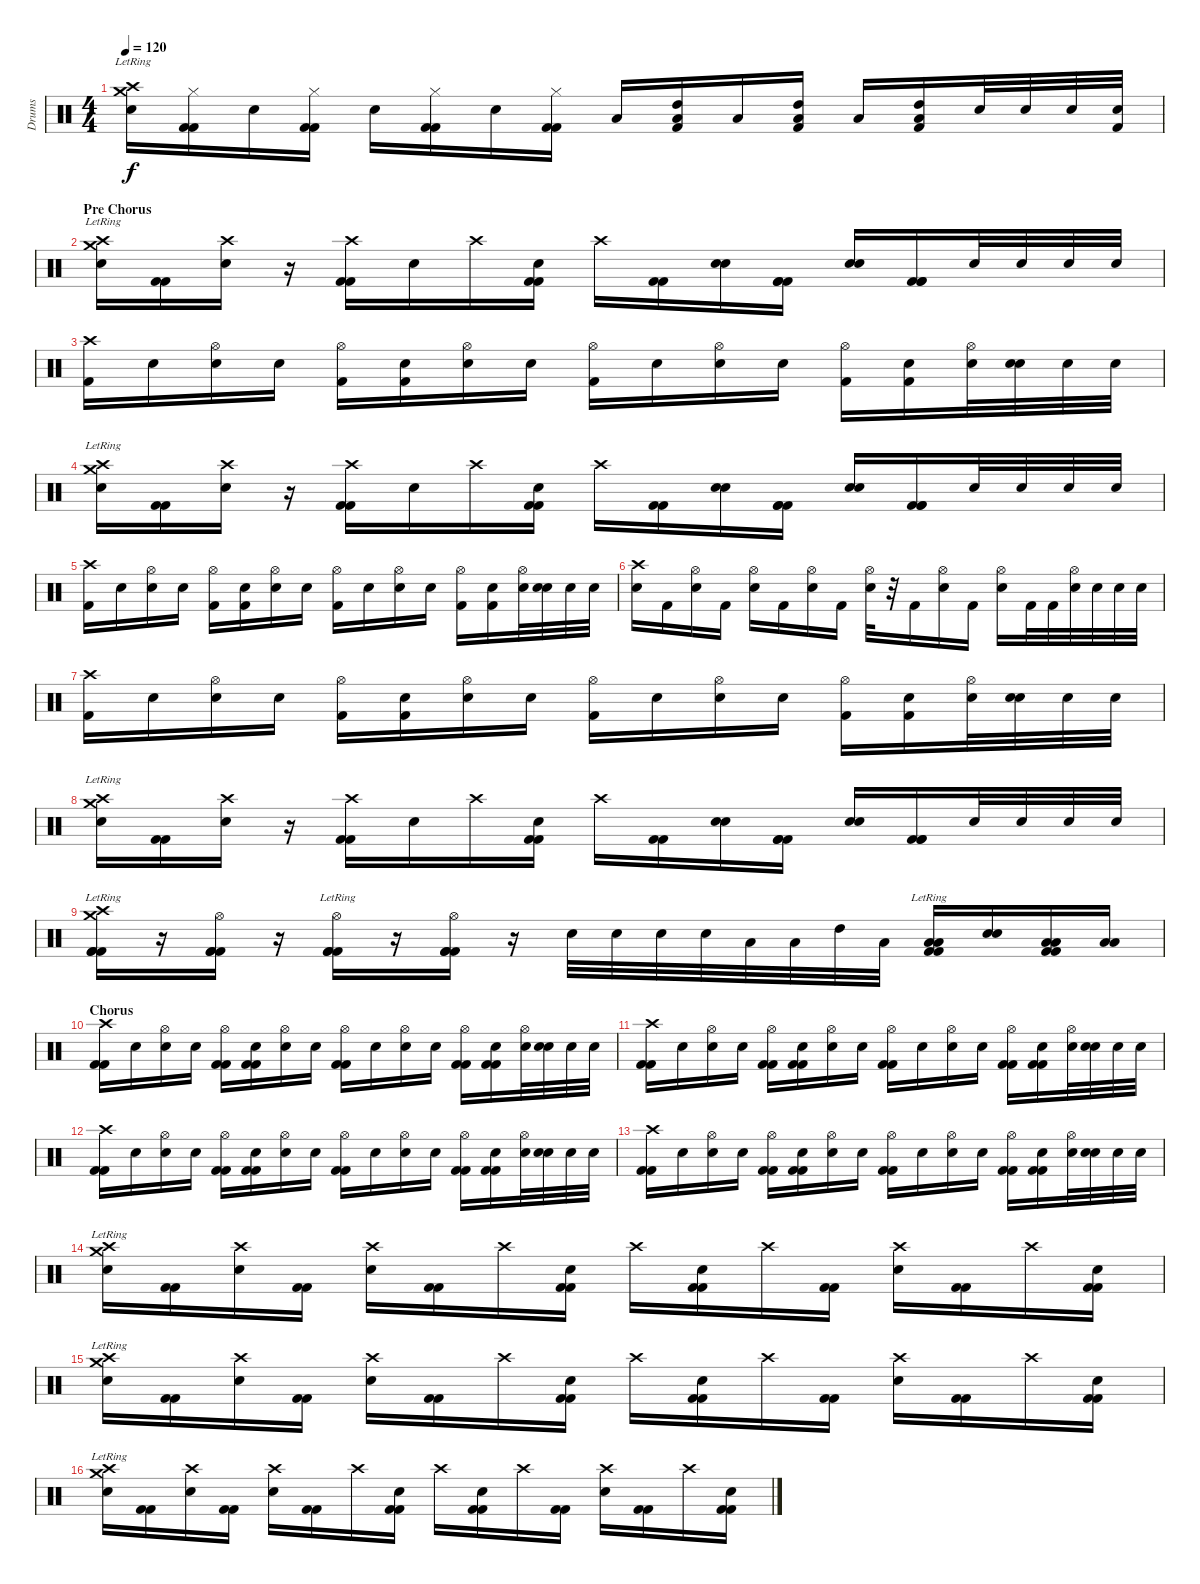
\track ("Drums" "Drums") {instrument percussion}
\staff {score}
\articulation defaults
\ts (4 4)
\tempo 120
\clef neutral
\ks c
("Crash medium (hit)"{lr} "Crash high (hit)"{lr} "Electric Snare (hit)").16{dy f} ("Hi-Hat (closed)" "Kick (hit) 2" "Kick (hit) 2").16 "Electric Snare (hit)".16 ("Hi-Hat (closed)" "Kick (hit) 2" "Kick (hit) 2").16 "Electric Snare (hit)".16 ("Hi-Hat (closed)" "Kick (hit) 2" "Kick (hit) 2").16 "Electric Snare (hit)".16 ("Hi-Hat (closed)" "Kick (hit) 2" "Kick (hit) 2").16 "Low Tom (hit)".16 ("Low Tom (hit)" "High Tom (hit)" "Kick (hit) 2").16 "Low Floor Tom (hit)".16 ("Low Floor Tom (hit)" "High Tom (hit)" "Kick (hit) 2").16 "Low Tom (hit)".16 ("Low Floor Tom (hit)" "High Tom (hit)" "Kick (hit) 2").16 "Electric Snare (hit)".32 "Electric Snare (hit)".32 "Electric Snare (hit)".32 ("Kick (hit) 2" "Electric Snare (hit)").32 |
\section ("" "Pre Chorus")
("Crash medium (hit)"{lr} "Crash high (hit)"{lr} "Electric Snare (hit)").16 ("Kick (hit) 2" "Kick (hit) 2").16 ("Crash high (hit)" "Electric Snare (hit)").16 r.16 ("Crash high (hit)" "Kick (hit) 2" "Kick (hit) 2").16 "Electric Snare (hit)".16 "Crash high (hit)".16 ("Electric Snare (hit)" "Kick (hit) 2" "Kick (hit) 2").16 "Crash high (hit)".16 ("Kick (hit) 2" "Kick (hit) 2").16 ("Electric Snare (hit)" "Electric Snare (hit)").16 ("Kick (hit) 2" "Kick (hit) 2" "Kick (hit) 2").16 ("Electric Snare (hit)" "Electric Snare (hit)").16 ("Kick (hit) 2" "Kick (hit) 2" "Kick (hit) 2").16 "Electric Snare (hit)".32 "Electric Snare (hit)".32 "Electric Snare (hit)".32 "Electric Snare (hit)".32 |
("Crash high (hit)" "Kick (hit) 2").16 "Snare (hit)".16 ("Hi-Hat (open)" "Electric Snare (hit)").16 "Snare (hit)".16 ("Hi-Hat (open)" "Kick (hit) 2").16 ("Snare (hit)" "Kick (hit) 2").16 ("Hi-Hat (open)" "Electric Snare (hit)").16 "Snare (hit)".16 ("Hi-Hat (open)" "Kick (hit) 2").16 "Snare (hit)".16 ("Hi-Hat (open)" "Electric Snare (hit)").16 "Snare (hit)".16 ("Hi-Hat (open)" "Kick (hit) 2").16 ("Snare (hit)" "Kick (hit) 2").16 ("Hi-Hat (open)" "Electric Snare (hit)").32 ("Snare (hit)" "Electric Snare (hit)").32 "Electric Snare (hit)".32 "Electric Snare (hit)".32 |
("Crash medium (hit)"{lr} "Crash high (hit)"{lr} "Electric Snare (hit)").16 ("Kick (hit) 2" "Kick (hit) 2").16 ("Crash high (hit)" "Electric Snare (hit)").16 r.16 ("Crash high (hit)" "Kick (hit) 2" "Kick (hit) 2").16 "Electric Snare (hit)".16 "Crash high (hit)".16 ("Electric Snare (hit)" "Kick (hit) 2" "Kick (hit) 2").16 "Crash high (hit)".16 ("Kick (hit) 2" "Kick (hit) 2").16 ("Electric Snare (hit)" "Electric Snare (hit)").16 ("Kick (hit) 2" "Kick (hit) 2" "Kick (hit) 2").16 ("Electric Snare (hit)" "Electric Snare (hit)").16 ("Kick (hit) 2" "Kick (hit) 2" "Kick (hit) 2").16 "Electric Snare (hit)".32 "Electric Snare (hit)".32 "Electric Snare (hit)".32 "Electric Snare (hit)".32 |
("Crash high (hit)" "Kick (hit) 2").16 "Snare (hit)".16 ("Hi-Hat (open)" "Electric Snare (hit)").16 "Snare (hit)".16 ("Hi-Hat (open)" "Kick (hit) 2").16 ("Snare (hit)" "Kick (hit) 2").16 ("Hi-Hat (open)" "Electric Snare (hit)").16 "Snare (hit)".16 ("Hi-Hat (open)" "Kick (hit) 2").16 "Snare (hit)".16 ("Hi-Hat (open)" "Electric Snare (hit)").16 "Snare (hit)".16 ("Hi-Hat (open)" "Kick (hit) 2").16 ("Snare (hit)" "Kick (hit) 2").16 ("Hi-Hat (open)" "Electric Snare (hit)").32 ("Snare (hit)" "Electric Snare (hit)").32 "Electric Snare (hit)".32 "Electric Snare (hit)".32 |
("Crash high (hit)" "Electric Snare (hit)").16 "Kick (hit) 2".16 ("Hi-Hat (open)" "Electric Snare (hit)").16 "Kick (hit) 2".16 ("Hi-Hat (open)" "Electric Snare (hit)").16 "Kick (hit) 2".16 ("Hi-Hat (open)" "Electric Snare (hit)").16 "Kick (hit) 2".16 ("Hi-Hat (open)" "Electric Snare (hit)").32 r.32 "Kick (hit) 2".16 ("Hi-Hat (open)" "Electric Snare (hit)").16 "Kick (hit) 2".16 ("Hi-Hat (open)" "Electric Snare (hit)").16 "Kick (hit) 2".32 "Kick (hit) 2".32 ("Hi-Hat (open)" "Electric Snare (hit)").32 "Electric Snare (hit)".32 "Electric Snare (hit)".32 "Electric Snare (hit)".32 |
("Crash high (hit)" "Kick (hit) 2").16 "Snare (hit)".16 ("Hi-Hat (open)" "Electric Snare (hit)").16 "Snare (hit)".16 ("Hi-Hat (open)" "Kick (hit) 2").16 ("Snare (hit)" "Kick (hit) 2").16 ("Hi-Hat (open)" "Electric Snare (hit)").16 "Snare (hit)".16 ("Hi-Hat (open)" "Kick (hit) 2").16 "Snare (hit)".16 ("Hi-Hat (open)" "Electric Snare (hit)").16 "Snare (hit)".16 ("Hi-Hat (open)" "Kick (hit) 2").16 ("Snare (hit)" "Kick (hit) 2").16 ("Hi-Hat (open)" "Electric Snare (hit)").32 ("Snare (hit)" "Electric Snare (hit)").32 "Electric Snare (hit)".32 "Electric Snare (hit)".32 |
("Crash medium (hit)"{lr} "Crash high (hit)"{lr} "Electric Snare (hit)").16 ("Kick (hit) 2" "Kick (hit) 2").16 ("Crash high (hit)" "Electric Snare (hit)").16 r.16 ("Crash high (hit)" "Kick (hit) 2" "Kick (hit) 2").16 "Electric Snare (hit)".16 "Crash high (hit)".16 ("Electric Snare (hit)" "Kick (hit) 2" "Kick (hit) 2").16 "Crash high (hit)".16 ("Kick (hit) 2" "Kick (hit) 2").16 ("Electric Snare (hit)" "Electric Snare (hit)").16 ("Kick (hit) 2" "Kick (hit) 2" "Kick (hit) 2").16 ("Electric Snare (hit)" "Electric Snare (hit)").16 ("Kick (hit) 2" "Kick (hit) 2" "Kick (hit) 2").16 "Electric Snare (hit)".32 "Electric Snare (hit)".32 "Electric Snare (hit)".32 "Electric Snare (hit)".32 |
("Crash high (hit)"{lr} "Crash medium (hit)"{lr} "Kick (hit) 2" "Kick (hit) 2" "Kick (hit) 2").16 r.16 ("Hi-Hat (open)" "Kick (hit) 2" "Kick (hit) 2" "Kick (hit) 2").16 r.16 ("Hi-Hat (open)"{lr} "Kick (hit) 2" "Kick (hit) 2" "Kick (hit) 2").16 r.16 ("Hi-Hat (open)" "Kick (hit) 2" "Kick (hit) 2" "Kick (hit) 2").16 r.16 "Electric Snare (hit)".32 "Electric Snare (hit)".32 "Electric Snare (hit)".32 "Electric Snare (hit)".32 "Low Floor Tom (hit)".32 "Low Tom (hit)".32 "High Tom (hit)".32 "Low Tom (hit)".32 ("Low Floor Tom (hit)" "Low Floor Tom (hit)"{lr} "Kick (hit) 2" "Kick (hit) 2").16 ("Electric Snare (hit)" "Electric Snare (hit)").16 ("Low Floor Tom (hit)" "Low Floor Tom (hit)" "Kick (hit) 2" "Kick (hit) 2").16 ("Low Tom (hit)" "Low Tom (hit)").16 |
\section ("" "Chorus")
("Crash high (hit)" "Kick (hit) 2" "Kick (hit) 2").16 "Snare (hit)".16 ("Hi-Hat (open)" "Electric Snare (hit)").16 "Snare (hit)".16 ("Hi-Hat (open)" "Kick (hit) 2" "Kick (hit) 2").16 ("Snare (hit)" "Kick (hit) 2" "Kick (hit) 2").16 ("Hi-Hat (open)" "Electric Snare (hit)").16 "Snare (hit)".16 ("Hi-Hat (open)" "Kick (hit) 2" "Kick (hit) 2").16 "Snare (hit)".16 ("Hi-Hat (open)" "Electric Snare (hit)").16 "Snare (hit)".16 ("Hi-Hat (open)" "Kick (hit) 2" "Kick (hit) 2").16 ("Snare (hit)" "Kick (hit) 2" "Kick (hit) 2").16 ("Hi-Hat (open)" "Electric Snare (hit)").32 ("Snare (hit)" "Electric Snare (hit)").32 "Electric Snare (hit)".32 "Electric Snare (hit)".32 |
("Crash high (hit)" "Kick (hit) 2" "Kick (hit) 2").16 "Snare (hit)".16 ("Hi-Hat (open)" "Electric Snare (hit)").16 "Snare (hit)".16 ("Hi-Hat (open)" "Kick (hit) 2" "Kick (hit) 2").16 ("Snare (hit)" "Kick (hit) 2" "Kick (hit) 2").16 ("Hi-Hat (open)" "Electric Snare (hit)").16 "Snare (hit)".16 ("Hi-Hat (open)" "Kick (hit) 2" "Kick (hit) 2").16 "Snare (hit)".16 ("Hi-Hat (open)" "Electric Snare (hit)").16 "Snare (hit)".16 ("Hi-Hat (open)" "Kick (hit) 2" "Kick (hit) 2").16 ("Snare (hit)" "Kick (hit) 2" "Kick (hit) 2").16 ("Hi-Hat (open)" "Electric Snare (hit)").32 ("Snare (hit)" "Electric Snare (hit)").32 "Electric Snare (hit)".32 "Electric Snare (hit)".32 |
("Crash high (hit)" "Kick (hit) 2" "Kick (hit) 2").16 "Snare (hit)".16 ("Hi-Hat (open)" "Electric Snare (hit)").16 "Snare (hit)".16 ("Hi-Hat (open)" "Kick (hit) 2" "Kick (hit) 2").16 ("Snare (hit)" "Kick (hit) 2" "Kick (hit) 2").16 ("Hi-Hat (open)" "Electric Snare (hit)").16 "Snare (hit)".16 ("Hi-Hat (open)" "Kick (hit) 2" "Kick (hit) 2").16 "Snare (hit)".16 ("Hi-Hat (open)" "Electric Snare (hit)").16 "Snare (hit)".16 ("Hi-Hat (open)" "Kick (hit) 2" "Kick (hit) 2").16 ("Snare (hit)" "Kick (hit) 2" "Kick (hit) 2").16 ("Hi-Hat (open)" "Electric Snare (hit)").32 ("Snare (hit)" "Electric Snare (hit)").32 "Electric Snare (hit)".32 "Electric Snare (hit)".32 |
("Crash high (hit)" "Kick (hit) 2" "Kick (hit) 2").16 "Snare (hit)".16 ("Hi-Hat (open)" "Electric Snare (hit)").16 "Snare (hit)".16 ("Hi-Hat (open)" "Kick (hit) 2" "Kick (hit) 2").16 ("Snare (hit)" "Kick (hit) 2" "Kick (hit) 2").16 ("Hi-Hat (open)" "Electric Snare (hit)").16 "Snare (hit)".16 ("Hi-Hat (open)" "Kick (hit) 2" "Kick (hit) 2").16 "Snare (hit)".16 ("Hi-Hat (open)" "Electric Snare (hit)").16 "Snare (hit)".16 ("Hi-Hat (open)" "Kick (hit) 2" "Kick (hit) 2").16 ("Snare (hit)" "Kick (hit) 2" "Kick (hit) 2").16 ("Hi-Hat (open)" "Electric Snare (hit)").32 ("Snare (hit)" "Electric Snare (hit)").32 "Electric Snare (hit)".32 "Electric Snare (hit)".32 |
("Crash medium (hit)"{lr} "Crash high (hit)"{lr} "Electric Snare (hit)").16 ("Kick (hit) 2" "Kick (hit) 2").16 ("Crash high (hit)" "Electric Snare (hit)").16 ("Kick (hit) 2" "Kick (hit) 2").16 ("Crash high (hit)" "Electric Snare (hit)").16 ("Kick (hit) 2" "Kick (hit) 2").16 "Crash high (hit)".16 ("Electric Snare (hit)" "Kick (hit) 2" "Kick (hit) 2").16 "Crash high (hit)".16 ("Electric Snare (hit)" "Kick (hit) 2" "Kick (hit) 2").16 "Crash high (hit)".16 ("Kick (hit) 2" "Kick (hit) 2").16 ("Crash high (hit)" "Electric Snare (hit)").16 ("Kick (hit) 2" "Kick (hit) 2").16 "Crash high (hit)".16 ("Electric Snare (hit)" "Kick (hit) 2" "Kick (hit) 2").16 |
("Crash medium (hit)"{lr} "Crash high (hit)"{lr} "Electric Snare (hit)").16 ("Kick (hit) 2" "Kick (hit) 2").16 ("Crash high (hit)" "Electric Snare (hit)").16 ("Kick (hit) 2" "Kick (hit) 2").16 ("Crash high (hit)" "Electric Snare (hit)").16 ("Kick (hit) 2" "Kick (hit) 2").16 "Crash high (hit)".16 ("Electric Snare (hit)" "Kick (hit) 2" "Kick (hit) 2").16 "Crash high (hit)".16 ("Electric Snare (hit)" "Kick (hit) 2" "Kick (hit) 2").16 "Crash high (hit)".16 ("Kick (hit) 2" "Kick (hit) 2").16 ("Crash high (hit)" "Electric Snare (hit)").16 ("Kick (hit) 2" "Kick (hit) 2").16 "Crash high (hit)".16 ("Electric Snare (hit)" "Kick (hit) 2" "Kick (hit) 2").16 |
("Crash medium (hit)"{lr} "Crash high (hit)"{lr} "Electric Snare (hit)").16 ("Kick (hit) 2" "Kick (hit) 2").16 ("Crash high (hit)" "Electric Snare (hit)").16 ("Kick (hit) 2" "Kick (hit) 2").16 ("Crash high (hit)" "Electric Snare (hit)").16 ("Kick (hit) 2" "Kick (hit) 2").16 "Crash high (hit)".16 ("Electric Snare (hit)" "Kick (hit) 2" "Kick (hit) 2").16 "Crash high (hit)".16 ("Electric Snare (hit)" "Kick (hit) 2" "Kick (hit) 2").16 "Crash high (hit)".16 ("Kick (hit) 2" "Kick (hit) 2").16 ("Crash high (hit)" "Electric Snare (hit)").16 ("Kick (hit) 2" "Kick (hit) 2").16 "Crash high (hit)".16 ("Electric Snare (hit)" "Kick (hit) 2" "Kick (hit) 2").16
